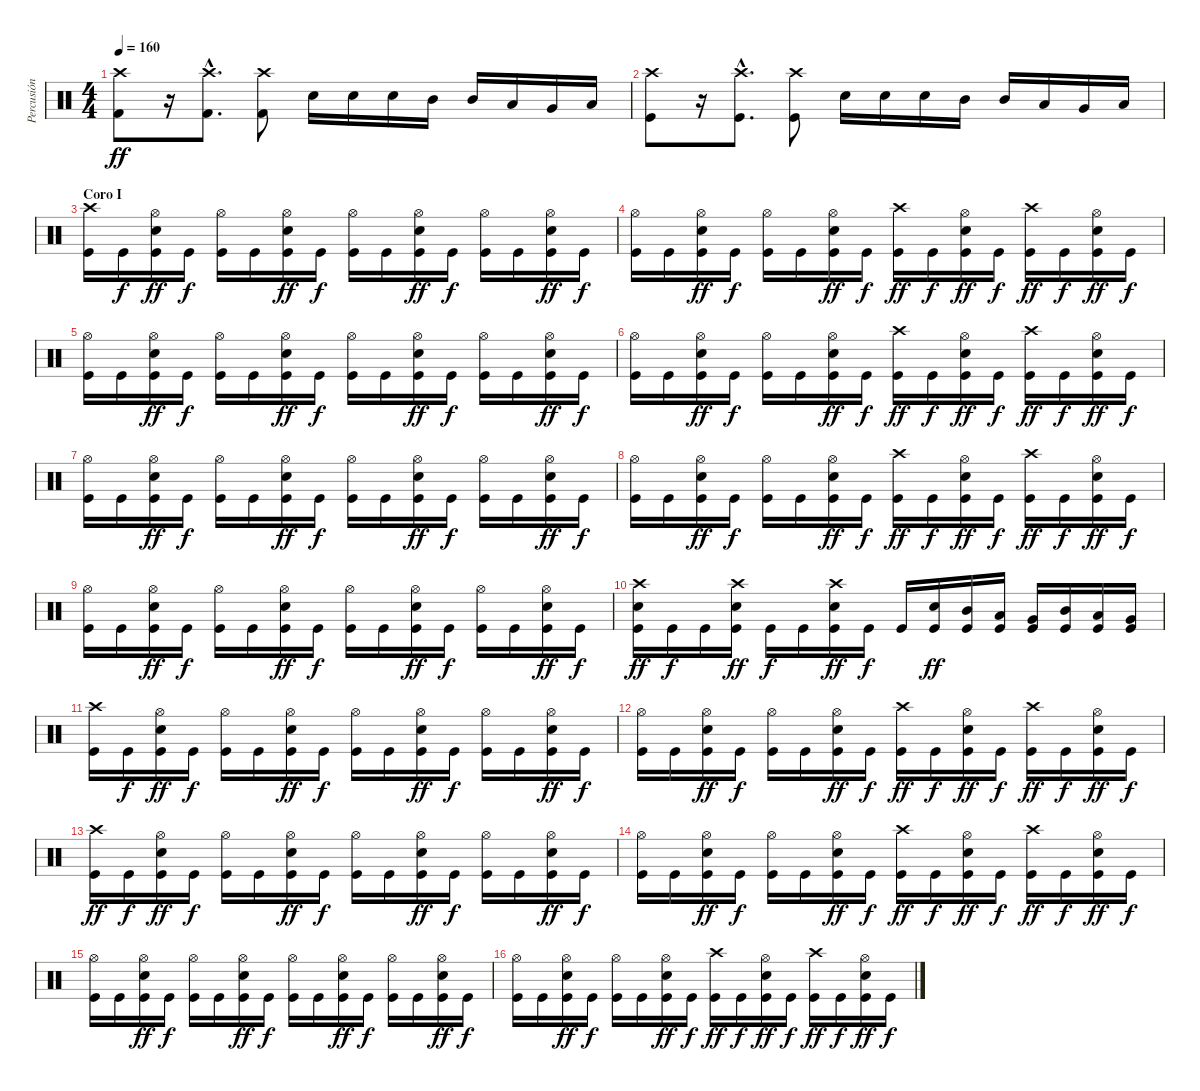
\track ("Percusión" "Percusión") {instrument percussion}
\staff {score}
\articulation defaults
\ts (4 4)
\tempo 160
\clef neutral
\ks c
("Kick (hit) 2" "Crash high (hit)").8{dy ff} r.16 ("Kick (hit) 2"{hac} "Crash high (hit)"{hac}).8{d} ("Kick (hit) 2" "Crash high (hit)").8 "Electric Snare (hit)".16 "Electric Snare (hit)".16 "Electric Snare (hit)".16 "Mid Tom (hit)".16 "Mid Tom (hit)".16 "Low Tom (hit)".16 "Very Low Tom (hit)".16 "Low Floor Tom (hit)".16 |
("Kick (hit)" "Crash high (hit)").8 r.16 ("Kick (hit)"{hac} "Crash high (hit)"{hac}).8{d} ("Kick (hit)" "Crash high (hit)").8 "Electric Snare (hit)".16 "Electric Snare (hit)".16 "Electric Snare (hit)".16 "Mid Tom (hit)".16 "Mid Tom (hit)".16 "Low Tom (hit)".16 "Very Low Tom (hit)".16 "Low Floor Tom (hit)".16 |
\section ("" "Coro I")
("Kick (hit)" "Crash high (hit)").16 "Kick (hit)".16{dy f} ("Kick (hit)" "Electric Snare (hit)" "Hi-Hat (open)").16{dy ff} "Kick (hit)".16{dy f} ("Kick (hit)" "Hi-Hat (open)").16 "Kick (hit)".16 ("Kick (hit)" "Electric Snare (hit)" "Hi-Hat (open)").16{dy ff} "Kick (hit)".16{dy f} ("Kick (hit)" "Hi-Hat (open)").16 "Kick (hit)".16 ("Kick (hit)" "Electric Snare (hit)" "Hi-Hat (open)").16{dy ff} "Kick (hit)".16{dy f} ("Kick (hit)" "Hi-Hat (open)").16 "Kick (hit)".16 ("Kick (hit)" "Electric Snare (hit)" "Hi-Hat (open)").16{dy ff} "Kick (hit)".16{dy f} |
("Kick (hit)" "Hi-Hat (open)").16 "Kick (hit)".16 ("Kick (hit)" "Electric Snare (hit)" "Hi-Hat (open)").16{dy ff} "Kick (hit)".16{dy f} ("Kick (hit)" "Hi-Hat (open)").16 "Kick (hit)".16 ("Kick (hit)" "Electric Snare (hit)" "Hi-Hat (open)").16{dy ff} "Kick (hit)".16{dy f} ("Kick (hit)" "Crash high (hit)").16{dy ff} "Kick (hit)".16{dy f} ("Kick (hit)" "Electric Snare (hit)" "Hi-Hat (open)").16{dy ff} "Kick (hit)".16{dy f} ("Kick (hit)" "Crash high (hit)").16{dy ff} "Kick (hit)".16{dy f} ("Kick (hit)" "Electric Snare (hit)" "Hi-Hat (open)").16{dy ff} "Kick (hit)".16{dy f} |
("Kick (hit)" "Hi-Hat (open)").16 "Kick (hit)".16 ("Kick (hit)" "Electric Snare (hit)" "Hi-Hat (open)").16{dy ff} "Kick (hit)".16{dy f} ("Kick (hit)" "Hi-Hat (open)").16 "Kick (hit)".16 ("Kick (hit)" "Electric Snare (hit)" "Hi-Hat (open)").16{dy ff} "Kick (hit)".16{dy f} ("Kick (hit)" "Hi-Hat (open)").16 "Kick (hit)".16 ("Kick (hit)" "Electric Snare (hit)" "Hi-Hat (open)").16{dy ff} "Kick (hit)".16{dy f} ("Kick (hit)" "Hi-Hat (open)").16 "Kick (hit)".16 ("Kick (hit)" "Electric Snare (hit)" "Hi-Hat (open)").16{dy ff} "Kick (hit)".16{dy f} |
("Kick (hit)" "Hi-Hat (open)").16 "Kick (hit)".16 ("Kick (hit)" "Electric Snare (hit)" "Hi-Hat (open)").16{dy ff} "Kick (hit)".16{dy f} ("Kick (hit)" "Hi-Hat (open)").16 "Kick (hit)".16 ("Kick (hit)" "Electric Snare (hit)" "Hi-Hat (open)").16{dy ff} "Kick (hit)".16{dy f} ("Kick (hit)" "Crash high (hit)").16{dy ff} "Kick (hit)".16{dy f} ("Kick (hit)" "Electric Snare (hit)" "Hi-Hat (open)").16{dy ff} "Kick (hit)".16{dy f} ("Kick (hit)" "Crash high (hit)").16{dy ff} "Kick (hit)".16{dy f} ("Kick (hit)" "Electric Snare (hit)" "Hi-Hat (open)").16{dy ff} "Kick (hit)".16{dy f} |
("Kick (hit)" "Hi-Hat (open)").16 "Kick (hit)".16 ("Kick (hit)" "Electric Snare (hit)" "Hi-Hat (open)").16{dy ff} "Kick (hit)".16{dy f} ("Kick (hit)" "Hi-Hat (open)").16 "Kick (hit)".16 ("Kick (hit)" "Electric Snare (hit)" "Hi-Hat (open)").16{dy ff} "Kick (hit)".16{dy f} ("Kick (hit)" "Hi-Hat (open)").16 "Kick (hit)".16 ("Kick (hit)" "Electric Snare (hit)" "Hi-Hat (open)").16{dy ff} "Kick (hit)".16{dy f} ("Kick (hit)" "Hi-Hat (open)").16 "Kick (hit)".16 ("Kick (hit)" "Electric Snare (hit)" "Hi-Hat (open)").16{dy ff} "Kick (hit)".16{dy f} |
("Kick (hit)" "Hi-Hat (open)").16 "Kick (hit)".16 ("Kick (hit)" "Electric Snare (hit)" "Hi-Hat (open)").16{dy ff} "Kick (hit)".16{dy f} ("Kick (hit)" "Hi-Hat (open)").16 "Kick (hit)".16 ("Kick (hit)" "Electric Snare (hit)" "Hi-Hat (open)").16{dy ff} "Kick (hit)".16{dy f} ("Kick (hit)" "Crash high (hit)").16{dy ff} "Kick (hit)".16{dy f} ("Kick (hit)" "Electric Snare (hit)" "Hi-Hat (open)").16{dy ff} "Kick (hit)".16{dy f} ("Kick (hit)" "Crash high (hit)").16{dy ff} "Kick (hit)".16{dy f} ("Kick (hit)" "Electric Snare (hit)" "Hi-Hat (open)").16{dy ff} "Kick (hit)".16{dy f} |
("Kick (hit)" "Hi-Hat (open)").16 "Kick (hit)".16 ("Kick (hit)" "Electric Snare (hit)" "Hi-Hat (open)").16{dy ff} "Kick (hit)".16{dy f} ("Kick (hit)" "Hi-Hat (open)").16 "Kick (hit)".16 ("Kick (hit)" "Electric Snare (hit)" "Hi-Hat (open)").16{dy ff} "Kick (hit)".16{dy f} ("Kick (hit)" "Hi-Hat (open)").16 "Kick (hit)".16 ("Kick (hit)" "Electric Snare (hit)" "Hi-Hat (open)").16{dy ff} "Kick (hit)".16{dy f} ("Kick (hit)" "Hi-Hat (open)").16 "Kick (hit)".16 ("Kick (hit)" "Electric Snare (hit)" "Hi-Hat (open)").16{dy ff} "Kick (hit)".16{dy f} |
("Kick (hit)" "Electric Snare (hit)" "Crash high (hit)").16{dy ff} "Kick (hit)".16{dy f} "Kick (hit)".16 ("Kick (hit)" "Electric Snare (hit)" "Crash high (hit)").16{dy ff} "Kick (hit)".16{dy f} "Kick (hit)".16 ("Kick (hit)" "Electric Snare (hit)" "Crash high (hit)").16{dy ff} "Kick (hit)".16{dy f} "Kick (hit)".16 ("Kick (hit)" "Electric Snare (hit)").16{dy ff} ("Kick (hit)" "Mid Tom (hit)").16 ("Kick (hit)" "Low Tom (hit)").16 ("Kick (hit)" "Very Low Tom (hit)").16 ("Kick (hit)" "Mid Tom (hit)").16 ("Kick (hit)" "Low Tom (hit)").16 ("Kick (hit)" "Very Low Tom (hit)").16 |
("Kick (hit)" "Crash high (hit)").16 "Kick (hit)".16{dy f} ("Kick (hit)" "Electric Snare (hit)" "Hi-Hat (open)").16{dy ff} "Kick (hit)".16{dy f} ("Kick (hit)" "Hi-Hat (open)").16 "Kick (hit)".16 ("Kick (hit)" "Electric Snare (hit)" "Hi-Hat (open)").16{dy ff} "Kick (hit)".16{dy f} ("Kick (hit)" "Hi-Hat (open)").16 "Kick (hit)".16 ("Kick (hit)" "Electric Snare (hit)" "Hi-Hat (open)").16{dy ff} "Kick (hit)".16{dy f} ("Kick (hit)" "Hi-Hat (open)").16 "Kick (hit)".16 ("Kick (hit)" "Electric Snare (hit)" "Hi-Hat (open)").16{dy ff} "Kick (hit)".16{dy f} |
("Kick (hit)" "Hi-Hat (open)").16 "Kick (hit)".16 ("Kick (hit)" "Electric Snare (hit)" "Hi-Hat (open)").16{dy ff} "Kick (hit)".16{dy f} ("Kick (hit)" "Hi-Hat (open)").16 "Kick (hit)".16 ("Kick (hit)" "Electric Snare (hit)" "Hi-Hat (open)").16{dy ff} "Kick (hit)".16{dy f} ("Kick (hit)" "Crash high (hit)").16{dy ff} "Kick (hit)".16{dy f} ("Kick (hit)" "Electric Snare (hit)" "Hi-Hat (open)").16{dy ff} "Kick (hit)".16{dy f} ("Kick (hit)" "Crash high (hit)").16{dy ff} "Kick (hit)".16{dy f} ("Kick (hit)" "Electric Snare (hit)" "Hi-Hat (open)").16{dy ff} "Kick (hit)".16{dy f} |
("Kick (hit)" "Crash high (hit)").16{dy ff} "Kick (hit)".16{dy f} ("Kick (hit)" "Electric Snare (hit)" "Hi-Hat (open)").16{dy ff} "Kick (hit)".16{dy f} ("Kick (hit)" "Hi-Hat (open)").16 "Kick (hit)".16 ("Kick (hit)" "Electric Snare (hit)" "Hi-Hat (open)").16{dy ff} "Kick (hit)".16{dy f} ("Kick (hit)" "Hi-Hat (open)").16 "Kick (hit)".16 ("Kick (hit)" "Electric Snare (hit)" "Hi-Hat (open)").16{dy ff} "Kick (hit)".16{dy f} ("Kick (hit)" "Hi-Hat (open)").16 "Kick (hit)".16 ("Kick (hit)" "Electric Snare (hit)" "Hi-Hat (open)").16{dy ff} "Kick (hit)".16{dy f} |
("Kick (hit)" "Hi-Hat (open)").16 "Kick (hit)".16 ("Kick (hit)" "Electric Snare (hit)" "Hi-Hat (open)").16{dy ff} "Kick (hit)".16{dy f} ("Kick (hit)" "Hi-Hat (open)").16 "Kick (hit)".16 ("Kick (hit)" "Electric Snare (hit)" "Hi-Hat (open)").16{dy ff} "Kick (hit)".16{dy f} ("Kick (hit)" "Crash high (hit)").16{dy ff} "Kick (hit)".16{dy f} ("Kick (hit)" "Electric Snare (hit)" "Hi-Hat (open)").16{dy ff} "Kick (hit)".16{dy f} ("Kick (hit)" "Crash high (hit)").16{dy ff} "Kick (hit)".16{dy f} ("Kick (hit)" "Electric Snare (hit)" "Hi-Hat (open)").16{dy ff} "Kick (hit)".16{dy f} |
("Kick (hit)" "Hi-Hat (open)").16 "Kick (hit)".16 ("Kick (hit)" "Electric Snare (hit)" "Hi-Hat (open)").16{dy ff} "Kick (hit)".16{dy f} ("Kick (hit)" "Hi-Hat (open)").16 "Kick (hit)".16 ("Kick (hit)" "Electric Snare (hit)" "Hi-Hat (open)").16{dy ff} "Kick (hit)".16{dy f} ("Kick (hit)" "Hi-Hat (open)").16 "Kick (hit)".16 ("Kick (hit)" "Electric Snare (hit)" "Hi-Hat (open)").16{dy ff} "Kick (hit)".16{dy f} ("Kick (hit)" "Hi-Hat (open)").16 "Kick (hit)".16 ("Kick (hit)" "Electric Snare (hit)" "Hi-Hat (open)").16{dy ff} "Kick (hit)".16{dy f} |
("Kick (hit)" "Hi-Hat (open)").16 "Kick (hit)".16 ("Kick (hit)" "Electric Snare (hit)" "Hi-Hat (open)").16{dy ff} "Kick (hit)".16{dy f} ("Kick (hit)" "Hi-Hat (open)").16 "Kick (hit)".16 ("Kick (hit)" "Electric Snare (hit)" "Hi-Hat (open)").16{dy ff} "Kick (hit)".16{dy f} ("Kick (hit)" "Crash high (hit)").16{dy ff} "Kick (hit)".16{dy f} ("Kick (hit)" "Electric Snare (hit)" "Hi-Hat (open)").16{dy ff} "Kick (hit)".16{dy f} ("Kick (hit)" "Crash high (hit)").16{dy ff} "Kick (hit)".16{dy f} ("Kick (hit)" "Electric Snare (hit)" "Hi-Hat (open)").16{dy ff} "Kick (hit)".16{dy f}
